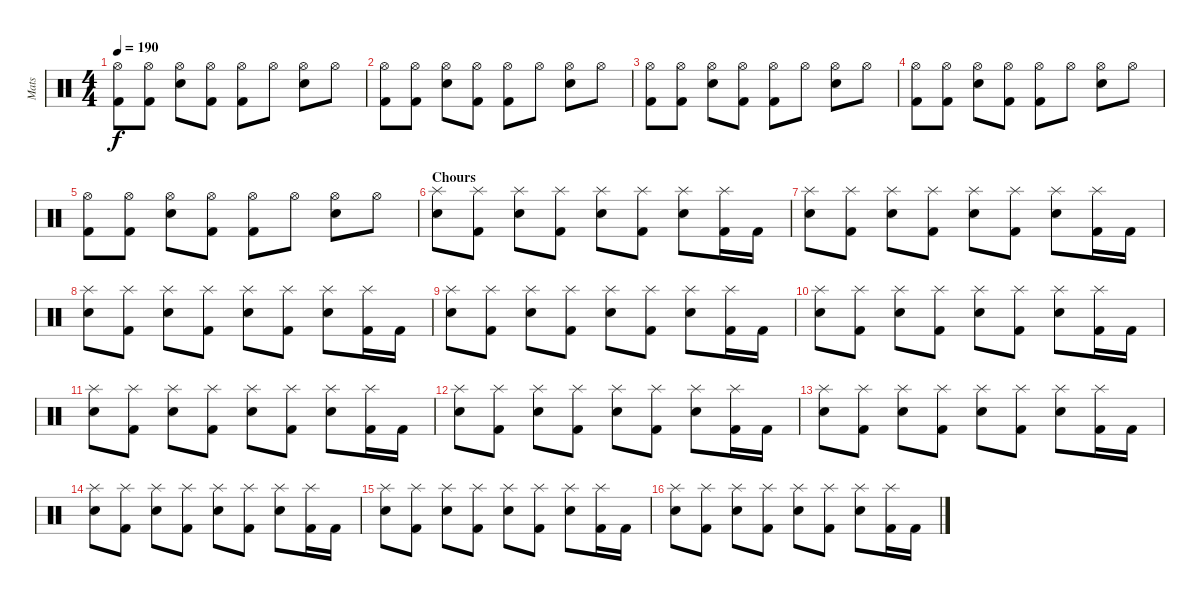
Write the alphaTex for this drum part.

\track ("Mats" "Mats") {instrument percussion}
\staff {score}
\articulation defaults
\ts (4 4)
\tempo 190
\clef neutral
\ks c
("Hi-Hat (open)" "Kick (hit) 2").8{dy f} ("Hi-Hat (open)" "Kick (hit) 2").8 ("Hi-Hat (open)" "Snare (hit) 2").8 ("Hi-Hat (open)" "Kick (hit) 2").8 ("Hi-Hat (open)" "Kick (hit) 2").8 "Hi-Hat (open)".8 ("Hi-Hat (open)" "Snare (hit) 2").8 "Hi-Hat (open)".8 |
("Hi-Hat (open)" "Kick (hit) 2").8 ("Hi-Hat (open)" "Kick (hit) 2").8 ("Hi-Hat (open)" "Snare (hit) 2").8 ("Hi-Hat (open)" "Kick (hit) 2").8 ("Hi-Hat (open)" "Kick (hit) 2").8 "Hi-Hat (open)".8 ("Hi-Hat (open)" "Snare (hit) 2").8 "Hi-Hat (open)".8 |
("Hi-Hat (open)" "Kick (hit) 2").8 ("Hi-Hat (open)" "Kick (hit) 2").8 ("Hi-Hat (open)" "Snare (hit) 2").8 ("Hi-Hat (open)" "Kick (hit) 2").8 ("Hi-Hat (open)" "Kick (hit) 2").8 "Hi-Hat (open)".8 ("Hi-Hat (open)" "Snare (hit) 2").8 "Hi-Hat (open)".8 |
("Hi-Hat (open)" "Kick (hit) 2").8 ("Hi-Hat (open)" "Kick (hit) 2").8 ("Hi-Hat (open)" "Snare (hit) 2").8 ("Hi-Hat (open)" "Kick (hit) 2").8 ("Hi-Hat (open)" "Kick (hit) 2").8 "Hi-Hat (open)".8 ("Hi-Hat (open)" "Snare (hit) 2").8 "Hi-Hat (open)".8 |
("Hi-Hat (open)" "Kick (hit) 2").8 ("Hi-Hat (open)" "Kick (hit) 2").8 ("Hi-Hat (open)" "Snare (hit) 2").8 ("Hi-Hat (open)" "Kick (hit) 2").8 ("Hi-Hat (open)" "Kick (hit) 2").8 "Hi-Hat (open)".8 ("Hi-Hat (open)" "Snare (hit) 2").8 "Hi-Hat (open)".8 |
\section ("" "Chours")
("Splash (hit)" "Snare (hit) 2").8 ("Splash (hit)" "Kick (hit) 2").8 ("Splash (hit)" "Snare (hit) 2").8 ("Splash (hit)" "Kick (hit) 2").8 ("Splash (hit)" "Snare (hit) 2").8 ("Splash (hit)" "Kick (hit) 2").8 ("Splash (hit)" "Snare (hit) 2").8 ("Splash (hit)" "Kick (hit) 2").16 "Kick (hit) 2".16 |
("Splash (hit)" "Snare (hit) 2").8 ("Splash (hit)" "Kick (hit) 2").8 ("Splash (hit)" "Snare (hit) 2").8 ("Splash (hit)" "Kick (hit) 2").8 ("Splash (hit)" "Snare (hit) 2").8 ("Splash (hit)" "Kick (hit) 2").8 ("Splash (hit)" "Snare (hit) 2").8 ("Splash (hit)" "Kick (hit) 2").16 "Kick (hit) 2".16 |
("Splash (hit)" "Snare (hit) 2").8 ("Splash (hit)" "Kick (hit) 2").8 ("Splash (hit)" "Snare (hit) 2").8 ("Splash (hit)" "Kick (hit) 2").8 ("Splash (hit)" "Snare (hit) 2").8 ("Splash (hit)" "Kick (hit) 2").8 ("Splash (hit)" "Snare (hit) 2").8 ("Splash (hit)" "Kick (hit) 2").16 "Kick (hit) 2".16 |
("Splash (hit)" "Snare (hit) 2").8 ("Splash (hit)" "Kick (hit) 2").8 ("Splash (hit)" "Snare (hit) 2").8 ("Splash (hit)" "Kick (hit) 2").8 ("Splash (hit)" "Snare (hit) 2").8 ("Splash (hit)" "Kick (hit) 2").8 ("Splash (hit)" "Snare (hit) 2").8 ("Splash (hit)" "Kick (hit) 2").16 "Kick (hit) 2".16 |
("Splash (hit)" "Snare (hit) 2").8 ("Splash (hit)" "Kick (hit) 2").8 ("Splash (hit)" "Snare (hit) 2").8 ("Splash (hit)" "Kick (hit) 2").8 ("Splash (hit)" "Snare (hit) 2").8 ("Splash (hit)" "Kick (hit) 2").8 ("Splash (hit)" "Snare (hit) 2").8 ("Splash (hit)" "Kick (hit) 2").16 "Kick (hit) 2".16 |
("Splash (hit)" "Snare (hit) 2").8 ("Splash (hit)" "Kick (hit) 2").8 ("Splash (hit)" "Snare (hit) 2").8 ("Splash (hit)" "Kick (hit) 2").8 ("Splash (hit)" "Snare (hit) 2").8 ("Splash (hit)" "Kick (hit) 2").8 ("Splash (hit)" "Snare (hit) 2").8 ("Splash (hit)" "Kick (hit) 2").16 "Kick (hit) 2".16 |
("Splash (hit)" "Snare (hit) 2").8 ("Splash (hit)" "Kick (hit) 2").8 ("Splash (hit)" "Snare (hit) 2").8 ("Splash (hit)" "Kick (hit) 2").8 ("Splash (hit)" "Snare (hit) 2").8 ("Splash (hit)" "Kick (hit) 2").8 ("Splash (hit)" "Snare (hit) 2").8 ("Splash (hit)" "Kick (hit) 2").16 "Kick (hit) 2".16 |
("Splash (hit)" "Snare (hit) 2").8 ("Splash (hit)" "Kick (hit) 2").8 ("Splash (hit)" "Snare (hit) 2").8 ("Splash (hit)" "Kick (hit) 2").8 ("Splash (hit)" "Snare (hit) 2").8 ("Splash (hit)" "Kick (hit) 2").8 ("Splash (hit)" "Snare (hit) 2").8 ("Splash (hit)" "Kick (hit) 2").16 "Kick (hit) 2".16 |
("Splash (hit)" "Snare (hit) 2").8 ("Splash (hit)" "Kick (hit) 2").8 ("Splash (hit)" "Snare (hit) 2").8 ("Splash (hit)" "Kick (hit) 2").8 ("Splash (hit)" "Snare (hit) 2").8 ("Splash (hit)" "Kick (hit) 2").8 ("Splash (hit)" "Snare (hit) 2").8 ("Splash (hit)" "Kick (hit) 2").16 "Kick (hit) 2".16 |
("Splash (hit)" "Snare (hit) 2").8 ("Splash (hit)" "Kick (hit) 2").8 ("Splash (hit)" "Snare (hit) 2").8 ("Splash (hit)" "Kick (hit) 2").8 ("Splash (hit)" "Snare (hit) 2").8 ("Splash (hit)" "Kick (hit) 2").8 ("Splash (hit)" "Snare (hit) 2").8 ("Splash (hit)" "Kick (hit) 2").16 "Kick (hit) 2".16 |
("Splash (hit)" "Snare (hit) 2").8 ("Splash (hit)" "Kick (hit) 2").8 ("Splash (hit)" "Snare (hit) 2").8 ("Splash (hit)" "Kick (hit) 2").8 ("Splash (hit)" "Snare (hit) 2").8 ("Splash (hit)" "Kick (hit) 2").8 ("Splash (hit)" "Snare (hit) 2").8 ("Splash (hit)" "Kick (hit) 2").16 "Kick (hit) 2".16
